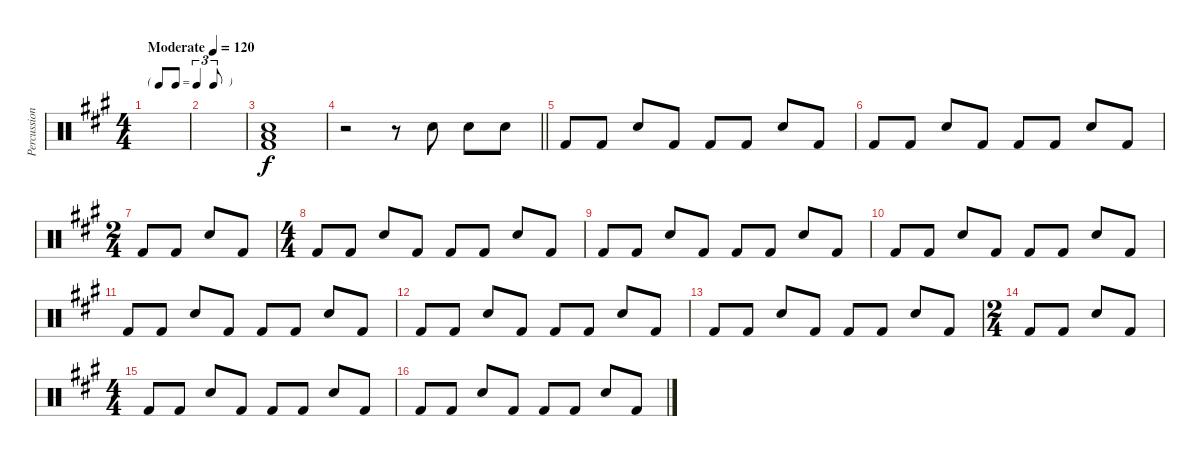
\track ("Percussion" "Percussion") {instrument percussion}
\staff {score}
\articulation defaults
\ts (4 4)
\tf triplet8th
\tempo (120 "Moderate")
\clef neutral
\ks a
|
|
("Snare (hit) 2" "Low Floor Tom (hit)" "Kick (hit) 2").1 |
\barLineRight lightlight
r.2 r.8 "Snare (hit) 2".8{dy f} "Snare (hit) 2".8 "Snare (hit) 2".8 |
"Kick (hit) 2".8 "Kick (hit) 2".8 "Snare (hit) 2".8 "Kick (hit) 2".8 "Kick (hit) 2".8 "Kick (hit) 2".8 "Snare (hit) 2".8 "Kick (hit) 2".8 |
"Kick (hit) 2".8 "Kick (hit) 2".8 "Snare (hit) 2".8 "Kick (hit) 2".8 "Kick (hit) 2".8 "Kick (hit) 2".8 "Snare (hit) 2".8 "Kick (hit) 2".8 |
\ts (2 4)
"Kick (hit) 2".8 "Kick (hit) 2".8 "Snare (hit) 2".8 "Kick (hit) 2".8 |
\ts (4 4)
"Kick (hit) 2".8 "Kick (hit) 2".8 "Snare (hit) 2".8 "Kick (hit) 2".8 "Kick (hit) 2".8 "Kick (hit) 2".8 "Snare (hit) 2".8 "Kick (hit) 2".8 |
"Kick (hit) 2".8 "Kick (hit) 2".8 "Snare (hit) 2".8 "Kick (hit) 2".8 "Kick (hit) 2".8 "Kick (hit) 2".8 "Snare (hit) 2".8 "Kick (hit) 2".8 |
"Kick (hit) 2".8 "Kick (hit) 2".8 "Snare (hit) 2".8 "Kick (hit) 2".8 "Kick (hit) 2".8 "Kick (hit) 2".8 "Snare (hit) 2".8 "Kick (hit) 2".8 |
"Kick (hit) 2".8 "Kick (hit) 2".8 "Snare (hit) 2".8 "Kick (hit) 2".8 "Kick (hit) 2".8 "Kick (hit) 2".8 "Snare (hit) 2".8 "Kick (hit) 2".8 |
"Kick (hit) 2".8 "Kick (hit) 2".8 "Snare (hit) 2".8 "Kick (hit) 2".8 "Kick (hit) 2".8 "Kick (hit) 2".8 "Snare (hit) 2".8 "Kick (hit) 2".8 |
"Kick (hit) 2".8 "Kick (hit) 2".8 "Snare (hit) 2".8 "Kick (hit) 2".8 "Kick (hit) 2".8 "Kick (hit) 2".8 "Snare (hit) 2".8 "Kick (hit) 2".8 |
\ts (2 4)
"Kick (hit) 2".8 "Kick (hit) 2".8 "Snare (hit) 2".8 "Kick (hit) 2".8 |
\ts (4 4)
"Kick (hit) 2".8 "Kick (hit) 2".8 "Snare (hit) 2".8 "Kick (hit) 2".8 "Kick (hit) 2".8 "Kick (hit) 2".8 "Snare (hit) 2".8 "Kick (hit) 2".8 |
"Kick (hit) 2".8 "Kick (hit) 2".8 "Snare (hit) 2".8 "Kick (hit) 2".8 "Kick (hit) 2".8 "Kick (hit) 2".8 "Snare (hit) 2".8 "Kick (hit) 2".8
